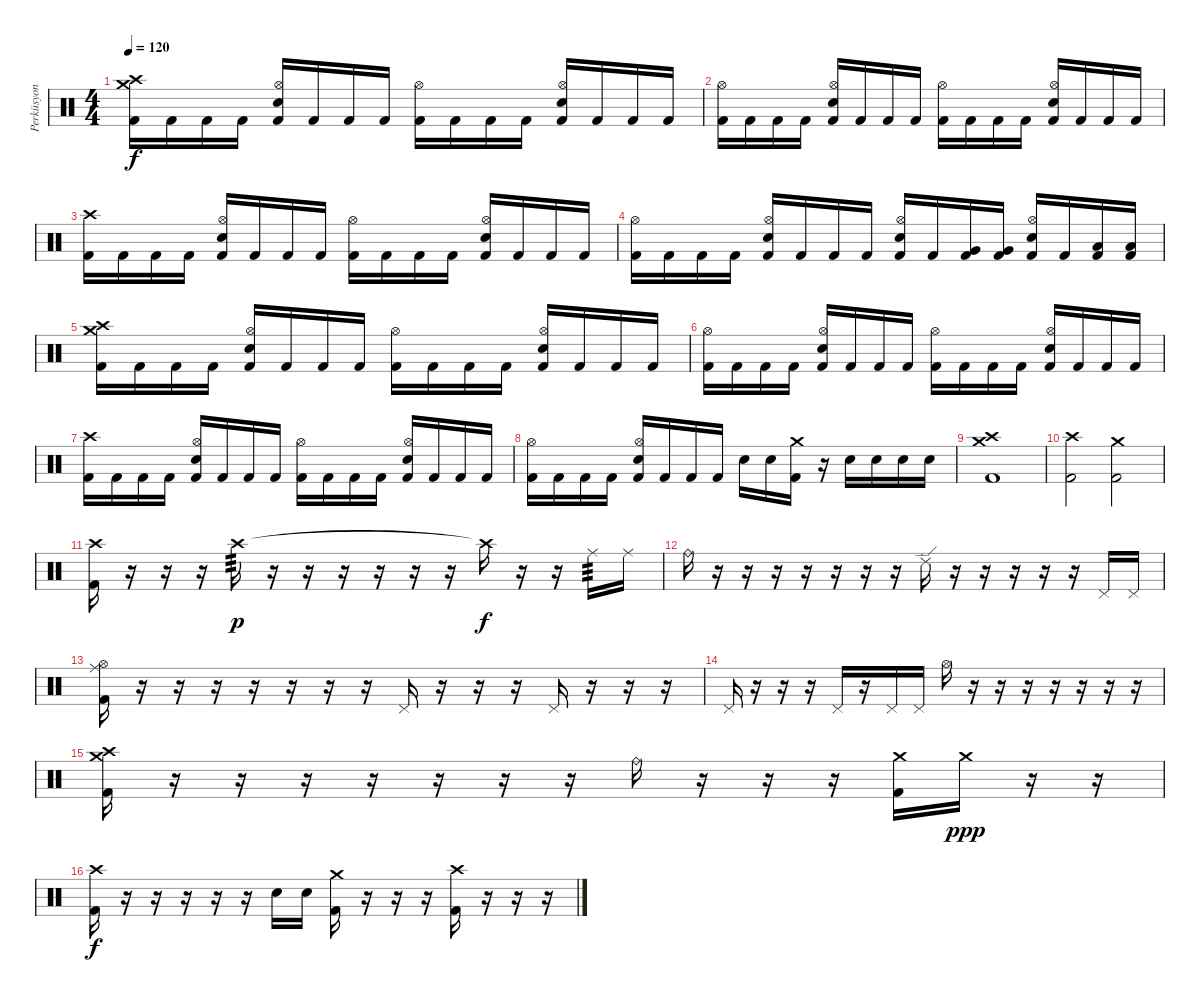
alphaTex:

\track ("Perküsyon" "Perküsyon") {instrument percussion}
\staff {score}
\articulation defaults
\ts (4 4)
\tempo 120
\clef neutral
\ks c
("Crash high (hit)" "Crash medium (hit)" "Kick (hit) 2").16{dy f} "Kick (hit) 2".16 "Kick (hit) 2".16 "Kick (hit) 2".16 ("Hi-Hat (open)" "Snare (hit) 2" "Kick (hit) 2").16 "Kick (hit) 2".16 "Kick (hit) 2".16 "Kick (hit) 2".16 ("Hi-Hat (open)" "Kick (hit) 2").16 "Kick (hit) 2".16 "Kick (hit) 2".16 "Kick (hit) 2".16 ("Hi-Hat (open)" "Snare (hit) 2" "Kick (hit) 2").16 "Kick (hit) 2".16 "Kick (hit) 2".16 "Kick (hit) 2".16 |
("Hi-Hat (open)" "Kick (hit) 2").16 "Kick (hit) 2".16 "Kick (hit) 2".16 "Kick (hit) 2".16 ("Hi-Hat (open)" "Snare (hit) 2" "Kick (hit) 2").16 "Kick (hit) 2".16 "Kick (hit) 2".16 "Kick (hit) 2".16 ("Hi-Hat (open)" "Kick (hit) 2").16 "Kick (hit) 2".16 "Kick (hit) 2".16 "Kick (hit) 2".16 ("Hi-Hat (open)" "Snare (hit) 2" "Kick (hit) 2").16 "Kick (hit) 2".16 "Kick (hit) 2".16 "Kick (hit) 2".16 |
("Crash high (hit)" "Kick (hit) 2").16 "Kick (hit) 2".16 "Kick (hit) 2".16 "Kick (hit) 2".16 ("Hi-Hat (open)" "Snare (hit) 2" "Kick (hit) 2").16 "Kick (hit) 2".16 "Kick (hit) 2".16 "Kick (hit) 2".16 ("Hi-Hat (open)" "Kick (hit) 2").16 "Kick (hit) 2".16 "Kick (hit) 2".16 "Kick (hit) 2".16 ("Hi-Hat (open)" "Snare (hit) 2" "Kick (hit) 2").16 "Kick (hit) 2".16 "Kick (hit) 2".16 "Kick (hit) 2".16 |
("Hi-Hat (open)" "Kick (hit) 2").16 "Kick (hit) 2".16 "Kick (hit) 2".16 "Kick (hit) 2".16 ("Hi-Hat (open)" "Snare (hit) 2" "Kick (hit) 2").16 "Kick (hit) 2".16 "Kick (hit) 2".16 "Kick (hit) 2".16 ("Hi-Hat (open)" "Snare (hit) 2" "Kick (hit) 2").16 "Kick (hit) 2".16 ("Very Low Tom (hit)" "Kick (hit) 2").16 ("Very Low Tom (hit)" "Kick (hit) 2").16 ("Hi-Hat (open)" "Snare (hit) 2" "Kick (hit) 2").16 "Kick (hit) 2".16 ("Low Floor Tom (hit)" "Kick (hit) 2").16 ("Low Floor Tom (hit)" "Kick (hit) 2").16 |
("Crash high (hit)" "Crash medium (hit)" "Kick (hit) 2").16 "Kick (hit) 2".16 "Kick (hit) 2".16 "Kick (hit) 2".16 ("Hi-Hat (open)" "Snare (hit) 2" "Kick (hit) 2").16 "Kick (hit) 2".16 "Kick (hit) 2".16 "Kick (hit) 2".16 ("Hi-Hat (open)" "Kick (hit) 2").16 "Kick (hit) 2".16 "Kick (hit) 2".16 "Kick (hit) 2".16 ("Hi-Hat (open)" "Snare (hit) 2" "Kick (hit) 2").16 "Kick (hit) 2".16 "Kick (hit) 2".16 "Kick (hit) 2".16 |
("Hi-Hat (open)" "Kick (hit) 2").16 "Kick (hit) 2".16 "Kick (hit) 2".16 "Kick (hit) 2".16 ("Hi-Hat (open)" "Snare (hit) 2" "Kick (hit) 2").16 "Kick (hit) 2".16 "Kick (hit) 2".16 "Kick (hit) 2".16 ("Hi-Hat (open)" "Kick (hit) 2").16 "Kick (hit) 2".16 "Kick (hit) 2".16 "Kick (hit) 2".16 ("Hi-Hat (open)" "Snare (hit) 2" "Kick (hit) 2").16 "Kick (hit) 2".16 "Kick (hit) 2".16 "Kick (hit) 2".16 |
("Crash high (hit)" "Kick (hit) 2").16 "Kick (hit) 2".16 "Kick (hit) 2".16 "Kick (hit) 2".16 ("Hi-Hat (open)" "Snare (hit) 2" "Kick (hit) 2").16 "Kick (hit) 2".16 "Kick (hit) 2".16 "Kick (hit) 2".16 ("Hi-Hat (open)" "Kick (hit) 2").16 "Kick (hit) 2".16 "Kick (hit) 2".16 "Kick (hit) 2".16 ("Hi-Hat (open)" "Snare (hit) 2" "Kick (hit) 2").16 "Kick (hit) 2".16 "Kick (hit) 2".16 "Kick (hit) 2".16 |
("Hi-Hat (open)" "Kick (hit) 2").16 "Kick (hit) 2".16 "Kick (hit) 2".16 "Kick (hit) 2".16 ("Hi-Hat (open)" "Snare (hit) 2" "Kick (hit) 2").16 "Kick (hit) 2".16 "Kick (hit) 2".16 "Kick (hit) 2".16 "Snare (hit) 2".16 "Snare (hit) 2".16 ("Crash medium (hit)" "Kick (hit) 2").16 r.16 "Snare (hit) 2".16 "Snare (hit) 2".16 "Snare (hit) 2".16 "Snare (hit) 2".16 |
("Crash high (hit)" "Crash medium (hit)" "Kick (hit) 2").1 |
("Crash high (hit)" "Kick (hit) 2").2 ("Crash medium (hit)" "Kick (hit) 2").2 |
("Crash high (hit)" "Kick (hit) 2").16 r.16 r.16 r.16 "Crash high (hit)".16{tp 3 dy p} r.16 r.16 r.16 r.16 r.16 r.16 "Crash high (hit)"{t}.16{dy f} r.16 r.16 "Ride (middle)".16{tp 3} "Ride (middle)".16 |
"Ride (bell)".16 r.16 r.16 r.16 r.16 r.16 r.16 r.16 "Ride (edge) 2".16 r.16 r.16 r.16 r.16 r.16 "Pedal Hi-Hat (hit)".16 "Pedal Hi-Hat (hit)".16 |
("Hi-Hat (open)" "Ride (middle)" "Kick (hit) 2").16 r.16 r.16 r.16 r.16 r.16 r.16 r.16 "Pedal Hi-Hat (hit)".16 r.16 r.16 r.16 "Pedal Hi-Hat (hit)".16 r.16 r.16 r.16 |
"Pedal Hi-Hat (hit)".16 r.16 r.16 r.16 "Pedal Hi-Hat (hit)".16 r.16 "Pedal Hi-Hat (hit)".16 "Pedal Hi-Hat (hit)".16 "Hi-Hat (open)".16 r.16 r.16 r.16 r.16 r.16 r.16 r.16 |
("Crash high (hit)" "Crash medium (hit)" "Kick (hit) 2").16 r.16 r.16 r.16 r.16 r.16 r.16 r.16 "Ride (bell)".16 r.16 r.16 r.16 ("Crash medium (hit)" "Kick (hit) 2").16 "Crash medium (hit)".16{dy ppp} r.16 r.16 |
("Crash high (hit)" "Kick (hit) 2").16{dy f} r.16 r.16 r.16 r.16 r.16 "Snare (hit) 2".16 "Snare (hit) 2".16 ("Crash medium (hit)" "Kick (hit) 2").16 r.16 r.16 r.16 ("Crash high (hit)" "Kick (hit) 2").16 r.16 r.16 r.16
